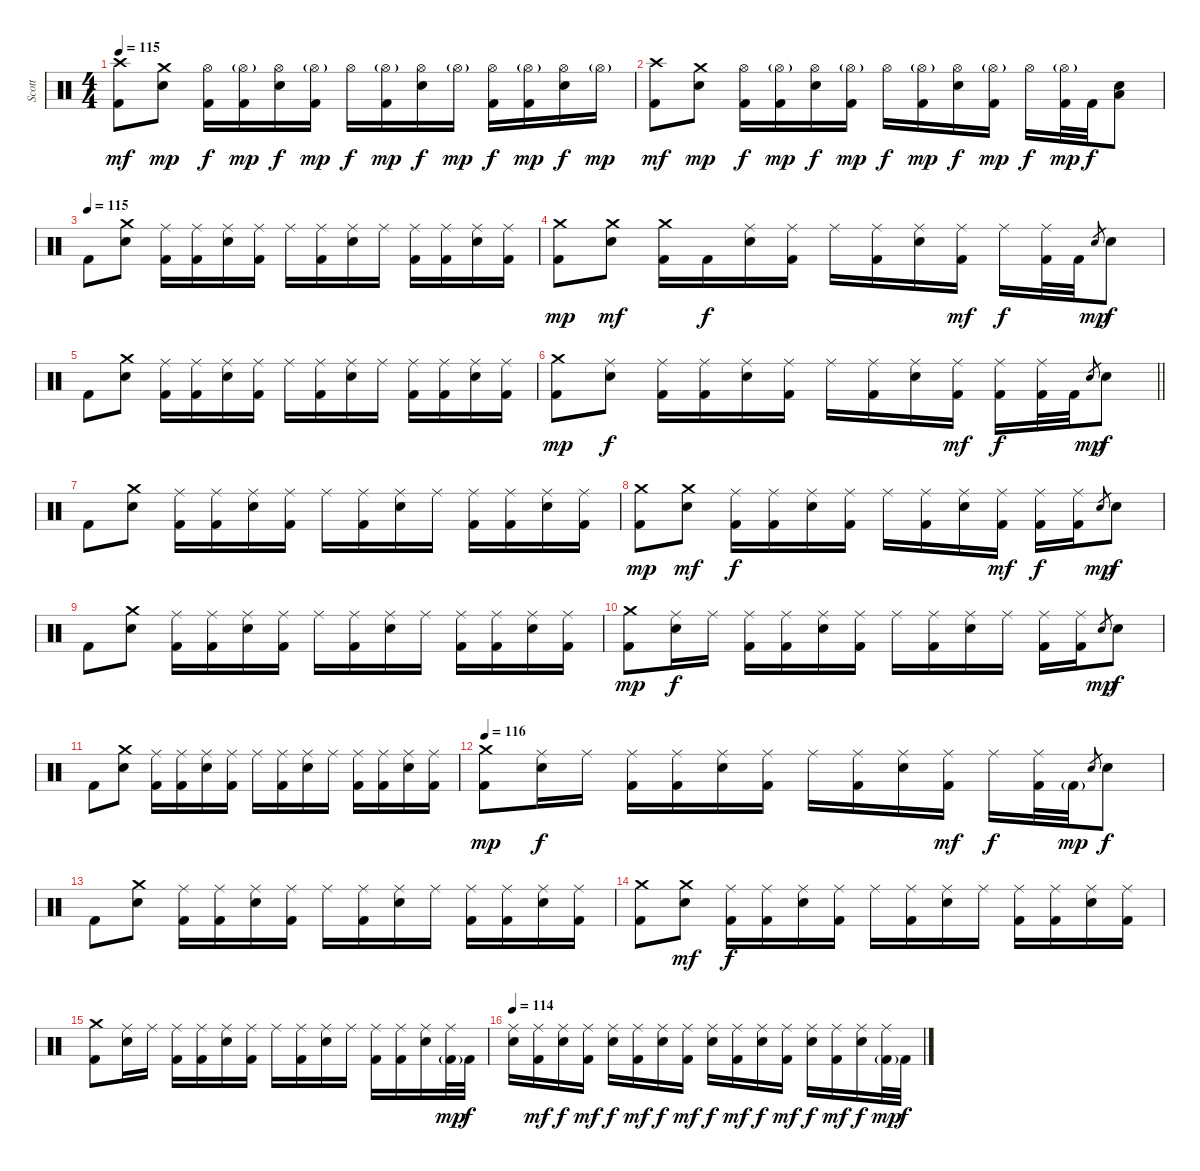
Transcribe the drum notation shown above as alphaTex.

\track ("Scott" "Scott") {instrument percussion}
\staff {score}
\articulation defaults
\ts (4 4)
\tempo 115
\clef neutral
\ks c
("Crash high (hit)" "Kick (hit) 2").8{dy mf} ("Crash medium (hit)" "Electric Snare (hit)").8{dy mp} ("Hi-Hat (open)" "Kick (hit) 2").16{dy f} ("Hi-Hat (open)"{g} "Kick (hit) 2").16{dy mp} ("Hi-Hat (open)" "Electric Snare (hit)").16{dy f} ("Hi-Hat (open)"{g} "Kick (hit) 2").16{dy mp} "Hi-Hat (open)".16{dy f} ("Hi-Hat (open)"{g} "Kick (hit) 2").16{dy mp} ("Hi-Hat (open)" "Electric Snare (hit)").16{dy f} "Hi-Hat (open)"{g}.16{dy mp} ("Hi-Hat (open)" "Kick (hit) 2").16{dy f} ("Hi-Hat (open)"{g} "Kick (hit) 2").16{dy mp} ("Hi-Hat (open)" "Electric Snare (hit)").16{dy f} "Hi-Hat (open)"{g}.16{dy mp} |
("Crash high (hit)" "Kick (hit) 2").8{dy mf} ("Crash medium (hit)" "Electric Snare (hit)").8{dy mp} ("Hi-Hat (open)" "Kick (hit) 2").16{dy f} ("Hi-Hat (open)"{g} "Kick (hit) 2").16{dy mp} ("Hi-Hat (open)" "Electric Snare (hit)").16{dy f} ("Hi-Hat (open)"{g} "Kick (hit) 2").16{dy mp} "Hi-Hat (open)".16{dy f} ("Hi-Hat (open)"{g} "Kick (hit) 2").16{dy mp} ("Hi-Hat (open)" "Electric Snare (hit)").16{dy f} ("Hi-Hat (open)"{g} "Kick (hit) 2").16{dy mp} "Hi-Hat (open)".16{dy f} ("Hi-Hat (open)"{g} "Kick (hit) 2").32{dy mp} "Kick (hit) 2".32{dy f} ("Electric Snare (hit)" "Low Floor Tom (hit)").8 |
\tempo (115)
"Kick (hit) 2".8 ("Crash medium (hit)" "Electric Snare (hit)").8 ("Ride (middle)" "Kick (hit) 2").16 ("Ride (middle)" "Kick (hit) 2").16 ("Ride (middle)" "Electric Snare (hit)").16 ("Ride (middle)" "Kick (hit) 2").16 "Ride (middle)".16 ("Ride (middle)" "Kick (hit) 2").16 ("Ride (middle)" "Electric Snare (hit)").16 "Ride (middle)".16 ("Ride (middle)" "Kick (hit) 2").16 ("Ride (middle)" "Kick (hit) 2").16 ("Ride (middle)" "Electric Snare (hit)").16 ("Ride (middle)" "Kick (hit) 2").16 |
("Crash medium (hit)" "Kick (hit) 2").8{dy mp} ("Crash medium (hit)" "Electric Snare (hit)").8{dy mf} ("Crash medium (hit)" "Kick (hit) 2").16 "Kick (hit) 2".16{dy f} ("Ride (middle)" "Electric Snare (hit)").16 ("Ride (middle)" "Kick (hit) 2").16 "Ride (middle)".16 ("Ride (middle)" "Kick (hit) 2").16 ("Ride (middle)" "Electric Snare (hit)").16 ("Ride (middle)" "Kick (hit) 2").16{dy mf} "Ride (middle)".16{dy f} ("Ride (middle)" "Kick (hit) 2").32 "Kick (hit) 2".32 "Electric Snare (hit)".8{gr dy mp} "Electric Snare (hit)".8{dy f} |
"Kick (hit) 2".8 ("Crash medium (hit)" "Electric Snare (hit)").8 ("Ride (middle)" "Kick (hit) 2").16 ("Ride (middle)" "Kick (hit) 2").16 ("Ride (middle)" "Electric Snare (hit)").16 ("Ride (middle)" "Kick (hit) 2").16 "Ride (middle)".16 ("Ride (middle)" "Kick (hit) 2").16 ("Ride (middle)" "Electric Snare (hit)").16 "Ride (middle)".16 ("Ride (middle)" "Kick (hit) 2").16 ("Ride (middle)" "Kick (hit) 2").16 ("Ride (middle)" "Electric Snare (hit)").16 ("Ride (middle)" "Kick (hit) 2").16 |
\barLineRight lightlight
("Crash medium (hit)" "Kick (hit) 2").8{dy mp} ("Ride (middle)" "Electric Snare (hit)").8{dy f} ("Ride (middle)" "Kick (hit) 2").16 ("Ride (middle)" "Kick (hit) 2").16 ("Ride (middle)" "Electric Snare (hit)").16 ("Ride (middle)" "Kick (hit) 2").16 "Ride (middle)".16 ("Ride (middle)" "Kick (hit) 2").16 ("Ride (middle)" "Electric Snare (hit)").16 ("Ride (middle)" "Kick (hit) 2").16{dy mf} ("Ride (middle)" "Kick (hit) 2").16{dy f} ("Ride (middle)" "Kick (hit) 2").32 "Kick (hit) 2".32 "Electric Snare (hit)".8{gr dy mp} "Electric Snare (hit)".8{dy f} |
\section ("" "")
"Kick (hit) 2".8 ("Crash medium (hit)" "Electric Snare (hit)").8 ("Ride (middle)" "Kick (hit) 2").16 ("Ride (middle)" "Kick (hit) 2").16 ("Ride (middle)" "Electric Snare (hit)").16 ("Ride (middle)" "Kick (hit) 2").16 "Ride (middle)".16 ("Ride (middle)" "Kick (hit) 2").16 ("Ride (middle)" "Electric Snare (hit)").16 "Ride (middle)".16 ("Ride (middle)" "Kick (hit) 2").16 ("Ride (middle)" "Kick (hit) 2").16 ("Ride (middle)" "Electric Snare (hit)").16 ("Ride (middle)" "Kick (hit) 2").16 |
("Crash medium (hit)" "Kick (hit) 2").8{dy mp} ("Crash medium (hit)" "Electric Snare (hit)").8{dy mf} ("Ride (middle)" "Kick (hit) 2").16{dy f} ("Ride (middle)" "Kick (hit) 2").16 ("Ride (middle)" "Electric Snare (hit)").16 ("Ride (middle)" "Kick (hit) 2").16 "Ride (middle)".16 ("Ride (middle)" "Kick (hit) 2").16 ("Ride (middle)" "Electric Snare (hit)").16 ("Ride (middle)" "Kick (hit) 2").16{dy mf} ("Ride (middle)" "Kick (hit) 2").16{dy f} ("Ride (middle)" "Kick (hit) 2").16 "Electric Snare (hit)".8{gr dy mp} "Electric Snare (hit)".8{dy f} |
"Kick (hit) 2".8 ("Crash medium (hit)" "Electric Snare (hit)").8 ("Ride (middle)" "Kick (hit) 2").16 ("Ride (middle)" "Kick (hit) 2").16 ("Ride (middle)" "Electric Snare (hit)").16 ("Ride (middle)" "Kick (hit) 2").16 "Ride (middle)".16 ("Ride (middle)" "Kick (hit) 2").16 ("Ride (middle)" "Electric Snare (hit)").16 "Ride (middle)".16 ("Ride (middle)" "Kick (hit) 2").16 ("Ride (middle)" "Kick (hit) 2").16 ("Ride (middle)" "Electric Snare (hit)").16 ("Ride (middle)" "Kick (hit) 2").16 |
("Crash medium (hit)" "Kick (hit) 2").8{dy mp} ("Ride (middle)" "Electric Snare (hit)").16{dy f} "Ride (middle)".16 ("Ride (middle)" "Kick (hit) 2").16 ("Ride (middle)" "Kick (hit) 2").16 ("Ride (middle)" "Electric Snare (hit)").16 ("Ride (middle)" "Kick (hit) 2").16 "Ride (middle)".16 ("Ride (middle)" "Kick (hit) 2").16 ("Ride (middle)" "Electric Snare (hit)").16 "Ride (middle)".16 ("Ride (middle)" "Kick (hit) 2").16 ("Ride (middle)" "Kick (hit) 2").16 "Electric Snare (hit)".8{gr dy mp} "Electric Snare (hit)".8{dy f} |
"Kick (hit) 2".8 ("Crash medium (hit)" "Electric Snare (hit)").8 ("Ride (middle)" "Kick (hit) 2").16 ("Ride (middle)" "Kick (hit) 2").16 ("Ride (middle)" "Electric Snare (hit)").16 ("Ride (middle)" "Kick (hit) 2").16 "Ride (middle)".16 ("Ride (middle)" "Kick (hit) 2").16 ("Ride (middle)" "Electric Snare (hit)").16 "Ride (middle)".16 ("Ride (middle)" "Kick (hit) 2").16 ("Ride (middle)" "Kick (hit) 2").16 ("Ride (middle)" "Electric Snare (hit)").16 ("Ride (middle)" "Kick (hit) 2").16 |
\tempo 116
("Crash medium (hit)" "Kick (hit) 2").8{dy mp} ("Ride (middle)" "Electric Snare (hit)").16{dy f} "Ride (middle)".16 ("Ride (middle)" "Kick (hit) 2").16 ("Ride (middle)" "Kick (hit) 2").16 ("Ride (middle)" "Electric Snare (hit)").16 ("Ride (middle)" "Kick (hit) 2").16 "Ride (middle)".16 ("Ride (middle)" "Kick (hit) 2").16 ("Ride (middle)" "Electric Snare (hit)").16 ("Ride (middle)" "Kick (hit) 2").16{dy mf} "Ride (middle)".16{dy f} ("Ride (middle)" "Kick (hit) 2").32 "Kick (hit) 2"{g}.32{dy mp} "Electric Snare (hit)".8{gr} "Electric Snare (hit)".8{dy f} |
"Kick (hit) 2".8 ("Crash medium (hit)" "Electric Snare (hit)").8 ("Ride (middle)" "Kick (hit) 2").16 ("Ride (middle)" "Kick (hit) 2").16 ("Ride (middle)" "Electric Snare (hit)").16 ("Ride (middle)" "Kick (hit) 2").16 "Ride (middle)".16 ("Ride (middle)" "Kick (hit) 2").16 ("Ride (middle)" "Electric Snare (hit)").16 "Ride (middle)".16 ("Ride (middle)" "Kick (hit) 2").16 ("Ride (middle)" "Kick (hit) 2").16 ("Ride (middle)" "Electric Snare (hit)").16 ("Ride (middle)" "Kick (hit) 2").16 |
("Crash medium (hit)" "Kick (hit) 2").8 ("Crash medium (hit)" "Electric Snare (hit)").8{dy mf} ("Ride (middle)" "Kick (hit) 2").16{dy f} ("Ride (middle)" "Kick (hit) 2").16 ("Ride (middle)" "Electric Snare (hit)").16 ("Ride (middle)" "Kick (hit) 2").16 "Ride (middle)".16 ("Ride (middle)" "Kick (hit) 2").16 ("Ride (middle)" "Electric Snare (hit)").16 "Ride (middle)".16 ("Ride (middle)" "Kick (hit) 2").16 ("Ride (middle)" "Kick (hit) 2").16 ("Ride (middle)" "Electric Snare (hit)").16 ("Ride (middle)" "Kick (hit) 2").16 |
("Crash medium (hit)" "Kick (hit) 2").8 ("Ride (middle)" "Electric Snare (hit)").16 "Ride (middle)".16 ("Ride (middle)" "Kick (hit) 2").16 ("Ride (middle)" "Kick (hit) 2").16 ("Ride (middle)" "Electric Snare (hit)").16 ("Ride (middle)" "Kick (hit) 2").16 "Ride (middle)".16 ("Ride (middle)" "Kick (hit) 2").16 ("Ride (middle)" "Electric Snare (hit)").16 "Ride (middle)".16 ("Ride (middle)" "Kick (hit) 2").16 ("Ride (middle)" "Kick (hit) 2").16 ("Ride (middle)" "Electric Snare (hit)").16 ("Ride (middle)" "Kick (hit) 2"{g}).32{dy mp} "Kick (hit) 2".32{dy f} |
\tempo 114
("Ride (middle)" "Electric Snare (hit)").16 ("Ride (middle)" "Kick (hit) 2").16{dy mf} ("Ride (middle)" "Electric Snare (hit)").16{dy f} ("Ride (middle)" "Kick (hit) 2").16{dy mf} ("Ride (middle)" "Electric Snare (hit)").16{dy f} ("Ride (middle)" "Kick (hit) 2").16{dy mf} ("Ride (middle)" "Electric Snare (hit)").16{dy f} ("Ride (middle)" "Kick (hit) 2").16{dy mf} ("Ride (middle)" "Electric Snare (hit)").16{dy f} ("Ride (middle)" "Kick (hit) 2").16{dy mf} ("Ride (middle)" "Electric Snare (hit)").16{dy f} ("Ride (middle)" "Kick (hit) 2").16{dy mf} ("Ride (middle)" "Electric Snare (hit)").16{dy f} ("Ride (middle)" "Kick (hit) 2").16{dy mf} ("Ride (middle)" "Electric Snare (hit)").16{dy f} ("Ride (middle)" "Kick (hit) 2"{g}).32{dy mp} "Kick (hit) 2".32{dy f}
